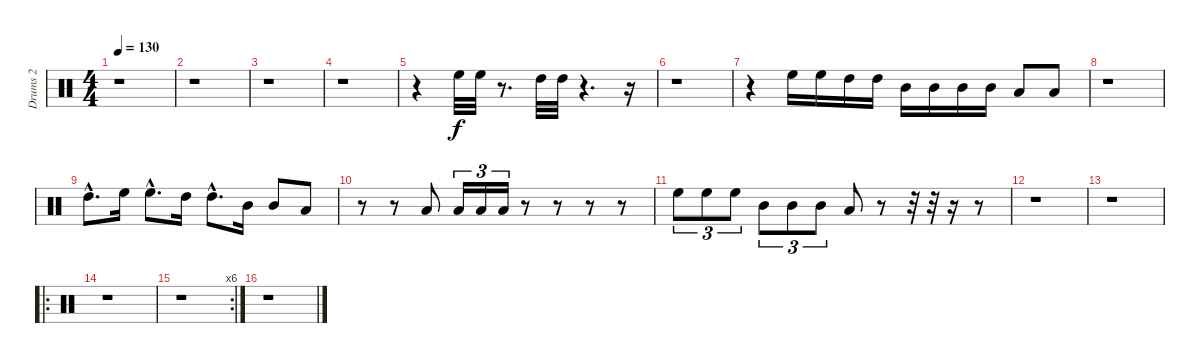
\track ("Drums 2" "Drums 2") {instrument percussion}
\staff {score}
\articulation defaults
\ts (4 4)
\tempo 130
\clef neutral
\ks c
r.1{dy f} |
r.1 |
r.1 |
r.1 |
r.4 "High Floor Tom (hit)".32 "High Floor Tom (hit)".32 r.8{d} "High Tom (hit)".32 "High Tom (hit)".32 r.4{d} r.16 |
r.1 |
r.4 "High Floor Tom (hit)".16 "High Floor Tom (hit)".16 "High Tom (hit)".16 "High Tom (hit)".16 "Mid Tom (hit)".16 "Mid Tom (hit)".16 "Mid Tom (hit)".16 "Mid Tom (hit)".16 "Low Tom (hit)".8 "Low Tom (hit)".8 |
r.1 |
"High Tom (hit)"{hac}.8{d} "High Floor Tom (hit)".16 "High Floor Tom (hit)"{hac}.8{d} "High Tom (hit)".16 "High Tom (hit)"{hac}.8{d} "Mid Tom (hit)".16 "Mid Tom (hit)".8 "Low Tom (hit)".8 |
r.8 r.8 "Low Tom (hit)".8 "Low Tom (hit)".16{tu (3 2)} "Low Tom (hit)".16{tu (3 2)} "Low Tom (hit)".16{tu (3 2)} r.8 r.8 r.8 r.8 |
"High Floor Tom (hit)".8{tu (3 2)} "High Floor Tom (hit)".8{tu (3 2)} "High Floor Tom (hit)".8{tu (3 2)} "Mid Tom (hit)".8{tu (3 2)} "Mid Tom (hit)".8{tu (3 2)} "Mid Tom (hit)".8{tu (3 2)} "Low Tom (hit)".8 r.8 r.32 r.32 r.16 r.8 |
r.1 |
r.1 |
\ro
r.1 |
\rc 6
r.1 |
r.1
